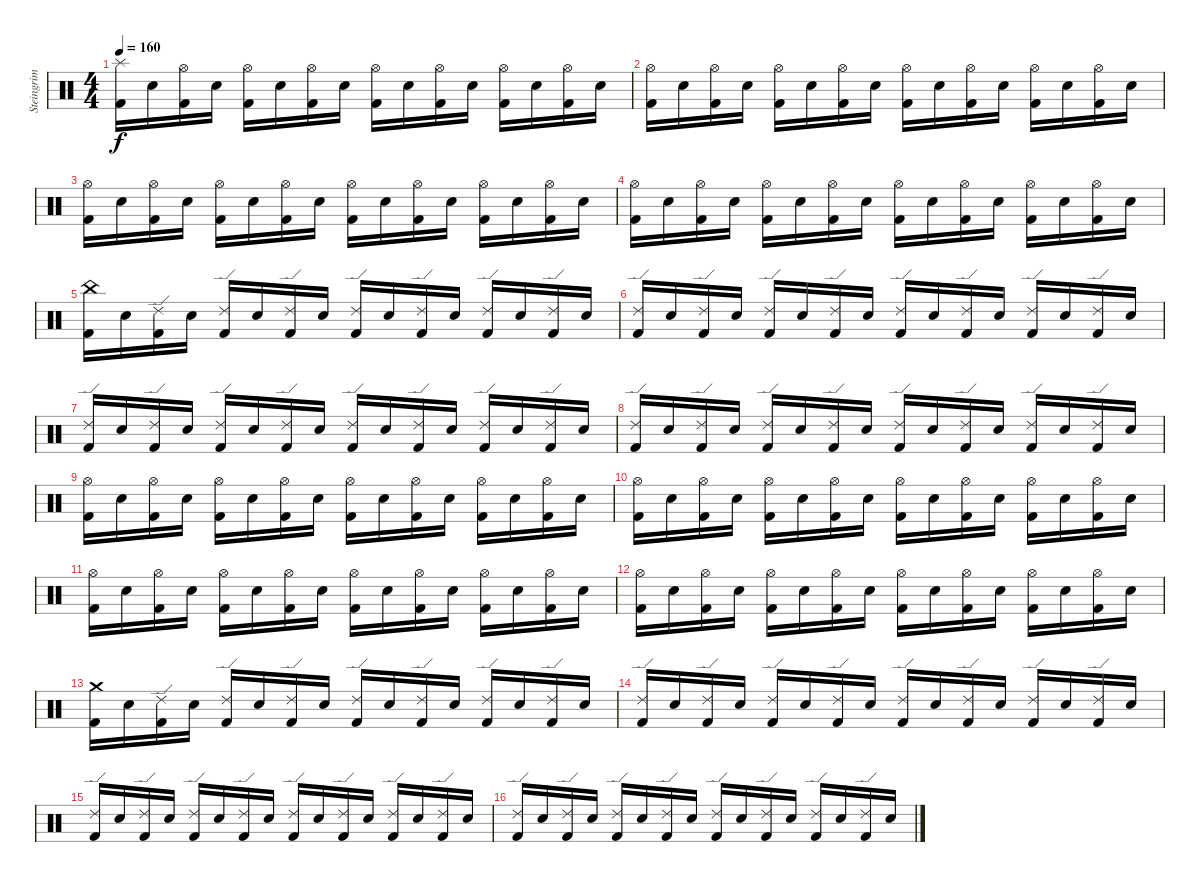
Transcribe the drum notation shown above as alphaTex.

\track ("Steingrim Trommur" "Steingrim ") {instrument percussion}
\staff {score}
\articulation defaults
\ts (4 4)
\tempo 160
\clef neutral
\ks c
("Splash (hit)" "Kick (hit) 2").16{dy f} "Electric Snare (hit)".16 ("Hi-Hat (open)" "Kick (hit) 2").16 "Electric Snare (hit)".16 ("Hi-Hat (open)" "Kick (hit) 2").16 "Electric Snare (hit)".16 ("Hi-Hat (open)" "Kick (hit) 2").16 "Electric Snare (hit)".16 ("Hi-Hat (open)" "Kick (hit) 2").16 "Electric Snare (hit)".16 ("Hi-Hat (open)" "Kick (hit) 2").16 "Electric Snare (hit)".16 ("Hi-Hat (open)" "Kick (hit) 2").16 "Electric Snare (hit)".16 ("Hi-Hat (open)" "Kick (hit) 2").16 "Electric Snare (hit)".16 |
("Hi-Hat (open)" "Kick (hit) 2").16 "Electric Snare (hit)".16 ("Hi-Hat (open)" "Kick (hit) 2").16 "Electric Snare (hit)".16 ("Hi-Hat (open)" "Kick (hit) 2").16 "Electric Snare (hit)".16 ("Hi-Hat (open)" "Kick (hit) 2").16 "Electric Snare (hit)".16 ("Hi-Hat (open)" "Kick (hit) 2").16 "Electric Snare (hit)".16 ("Hi-Hat (open)" "Kick (hit) 2").16 "Electric Snare (hit)".16 ("Hi-Hat (open)" "Kick (hit) 2").16 "Electric Snare (hit)".16 ("Hi-Hat (open)" "Kick (hit) 2").16 "Electric Snare (hit)".16 |
("Hi-Hat (open)" "Kick (hit) 2").16 "Electric Snare (hit)".16 ("Hi-Hat (open)" "Kick (hit) 2").16 "Electric Snare (hit)".16 ("Hi-Hat (open)" "Kick (hit) 2").16 "Electric Snare (hit)".16 ("Hi-Hat (open)" "Kick (hit) 2").16 "Electric Snare (hit)".16 ("Hi-Hat (open)" "Kick (hit) 2").16 "Electric Snare (hit)".16 ("Hi-Hat (open)" "Kick (hit) 2").16 "Electric Snare (hit)".16 ("Hi-Hat (open)" "Kick (hit) 2").16 "Electric Snare (hit)".16 ("Hi-Hat (open)" "Kick (hit) 2").16 "Electric Snare (hit)".16 |
("Hi-Hat (open)" "Kick (hit) 2").16 "Electric Snare (hit)".16 ("Hi-Hat (open)" "Kick (hit) 2").16 "Electric Snare (hit)".16 ("Hi-Hat (open)" "Kick (hit) 2").16 "Electric Snare (hit)".16 ("Hi-Hat (open)" "Kick (hit) 2").16 "Electric Snare (hit)".16 ("Hi-Hat (open)" "Kick (hit) 2").16 "Electric Snare (hit)".16 ("Hi-Hat (open)" "Kick (hit) 2").16 "Electric Snare (hit)".16 ("Hi-Hat (open)" "Kick (hit) 2").16 "Electric Snare (hit)".16 ("Hi-Hat (open)" "Kick (hit) 2").16 "Electric Snare (hit)".16 |
("China (hit)" "Kick (hit) 2").16 "Electric Snare (hit)".16 ("Ride (edge) 2" "Kick (hit) 2").16 "Electric Snare (hit)".16 ("Ride (edge) 2" "Kick (hit) 2").16 "Electric Snare (hit)".16 ("Ride (edge) 2" "Kick (hit) 2").16 "Electric Snare (hit)".16 ("Ride (edge) 2" "Kick (hit) 2").16 "Electric Snare (hit)".16 ("Ride (edge) 2" "Kick (hit) 2").16 "Electric Snare (hit)".16 ("Ride (edge) 2" "Kick (hit) 2").16 "Electric Snare (hit)".16 ("Ride (edge) 2" "Kick (hit) 2").16 "Electric Snare (hit)".16 |
("Ride (edge) 2" "Kick (hit) 2").16 "Electric Snare (hit)".16 ("Ride (edge) 2" "Kick (hit) 2").16 "Electric Snare (hit)".16 ("Ride (edge) 2" "Kick (hit) 2").16 "Electric Snare (hit)".16 ("Ride (edge) 2" "Kick (hit) 2").16 "Electric Snare (hit)".16 ("Ride (edge) 2" "Kick (hit) 2").16 "Electric Snare (hit)".16 ("Ride (edge) 2" "Kick (hit) 2").16 "Electric Snare (hit)".16 ("Ride (edge) 2" "Kick (hit) 2").16 "Electric Snare (hit)".16 ("Ride (edge) 2" "Kick (hit) 2").16 "Electric Snare (hit)".16 |
("Ride (edge) 2" "Kick (hit) 2").16 "Electric Snare (hit)".16 ("Ride (edge) 2" "Kick (hit) 2").16 "Electric Snare (hit)".16 ("Ride (edge) 2" "Kick (hit) 2").16 "Electric Snare (hit)".16 ("Ride (edge) 2" "Kick (hit) 2").16 "Electric Snare (hit)".16 ("Ride (edge) 2" "Kick (hit) 2").16 "Electric Snare (hit)".16 ("Ride (edge) 2" "Kick (hit) 2").16 "Electric Snare (hit)".16 ("Ride (edge) 2" "Kick (hit) 2").16 "Electric Snare (hit)".16 ("Ride (edge) 2" "Kick (hit) 2").16 "Electric Snare (hit)".16 |
("Ride (edge) 2" "Kick (hit) 2").16 "Electric Snare (hit)".16 ("Ride (edge) 2" "Kick (hit) 2").16 "Electric Snare (hit)".16 ("Ride (edge) 2" "Kick (hit) 2").16 "Electric Snare (hit)".16 ("Ride (edge) 2" "Kick (hit) 2").16 "Electric Snare (hit)".16 ("Ride (edge) 2" "Kick (hit) 2").16 "Electric Snare (hit)".16 ("Ride (edge) 2" "Kick (hit) 2").16 "Electric Snare (hit)".16 ("Ride (edge) 2" "Kick (hit) 2").16 "Electric Snare (hit)".16 ("Ride (edge) 2" "Kick (hit) 2").16 "Electric Snare (hit)".16 |
("Hi-Hat (open)" "Kick (hit) 2").16 "Electric Snare (hit)".16 ("Hi-Hat (open)" "Kick (hit) 2").16 "Electric Snare (hit)".16 ("Hi-Hat (open)" "Kick (hit) 2").16 "Electric Snare (hit)".16 ("Hi-Hat (open)" "Kick (hit) 2").16 "Electric Snare (hit)".16 ("Hi-Hat (open)" "Kick (hit) 2").16 "Electric Snare (hit)".16 ("Hi-Hat (open)" "Kick (hit) 2").16 "Electric Snare (hit)".16 ("Hi-Hat (open)" "Kick (hit) 2").16 "Electric Snare (hit)".16 ("Hi-Hat (open)" "Kick (hit) 2").16 "Electric Snare (hit)".16 |
("Hi-Hat (open)" "Kick (hit) 2").16 "Electric Snare (hit)".16 ("Hi-Hat (open)" "Kick (hit) 2").16 "Electric Snare (hit)".16 ("Hi-Hat (open)" "Kick (hit) 2").16 "Electric Snare (hit)".16 ("Hi-Hat (open)" "Kick (hit) 2").16 "Electric Snare (hit)".16 ("Hi-Hat (open)" "Kick (hit) 2").16 "Electric Snare (hit)".16 ("Hi-Hat (open)" "Kick (hit) 2").16 "Electric Snare (hit)".16 ("Hi-Hat (open)" "Kick (hit) 2").16 "Electric Snare (hit)".16 ("Hi-Hat (open)" "Kick (hit) 2").16 "Electric Snare (hit)".16 |
("Hi-Hat (open)" "Kick (hit) 2").16 "Electric Snare (hit)".16 ("Hi-Hat (open)" "Kick (hit) 2").16 "Electric Snare (hit)".16 ("Hi-Hat (open)" "Kick (hit) 2").16 "Electric Snare (hit)".16 ("Hi-Hat (open)" "Kick (hit) 2").16 "Electric Snare (hit)".16 ("Hi-Hat (open)" "Kick (hit) 2").16 "Electric Snare (hit)".16 ("Hi-Hat (open)" "Kick (hit) 2").16 "Electric Snare (hit)".16 ("Hi-Hat (open)" "Kick (hit) 2").16 "Electric Snare (hit)".16 ("Hi-Hat (open)" "Kick (hit) 2").16 "Electric Snare (hit)".16 |
("Hi-Hat (open)" "Kick (hit) 2").16 "Electric Snare (hit)".16 ("Hi-Hat (open)" "Kick (hit) 2").16 "Electric Snare (hit)".16 ("Hi-Hat (open)" "Kick (hit) 2").16 "Electric Snare (hit)".16 ("Hi-Hat (open)" "Kick (hit) 2").16 "Electric Snare (hit)".16 ("Hi-Hat (open)" "Kick (hit) 2").16 "Electric Snare (hit)".16 ("Hi-Hat (open)" "Kick (hit) 2").16 "Electric Snare (hit)".16 ("Hi-Hat (open)" "Kick (hit) 2").16 "Electric Snare (hit)".16 ("Hi-Hat (open)" "Kick (hit) 2").16 "Electric Snare (hit)".16 |
("Crash medium (hit)" "Kick (hit) 2").16 "Electric Snare (hit)".16 ("Ride (edge) 2" "Kick (hit) 2").16 "Electric Snare (hit)".16 ("Ride (edge) 2" "Kick (hit) 2").16 "Electric Snare (hit)".16 ("Ride (edge) 2" "Kick (hit) 2").16 "Electric Snare (hit)".16 ("Ride (edge) 2" "Kick (hit) 2").16 "Electric Snare (hit)".16 ("Ride (edge) 2" "Kick (hit) 2").16 "Electric Snare (hit)".16 ("Ride (edge) 2" "Kick (hit) 2").16 "Electric Snare (hit)".16 ("Ride (edge) 2" "Kick (hit) 2").16 "Electric Snare (hit)".16 |
("Ride (edge) 2" "Kick (hit) 2").16 "Electric Snare (hit)".16 ("Ride (edge) 2" "Kick (hit) 2").16 "Electric Snare (hit)".16 ("Ride (edge) 2" "Kick (hit) 2").16 "Electric Snare (hit)".16 ("Ride (edge) 2" "Kick (hit) 2").16 "Electric Snare (hit)".16 ("Ride (edge) 2" "Kick (hit) 2").16 "Electric Snare (hit)".16 ("Ride (edge) 2" "Kick (hit) 2").16 "Electric Snare (hit)".16 ("Ride (edge) 2" "Kick (hit) 2").16 "Electric Snare (hit)".16 ("Ride (edge) 2" "Kick (hit) 2").16 "Electric Snare (hit)".16 |
("Ride (edge) 2" "Kick (hit) 2").16 "Electric Snare (hit)".16 ("Ride (edge) 2" "Kick (hit) 2").16 "Electric Snare (hit)".16 ("Ride (edge) 2" "Kick (hit) 2").16 "Electric Snare (hit)".16 ("Ride (edge) 2" "Kick (hit) 2").16 "Electric Snare (hit)".16 ("Ride (edge) 2" "Kick (hit) 2").16 "Electric Snare (hit)".16 ("Ride (edge) 2" "Kick (hit) 2").16 "Electric Snare (hit)".16 ("Ride (edge) 2" "Kick (hit) 2").16 "Electric Snare (hit)".16 ("Ride (edge) 2" "Kick (hit) 2").16 "Electric Snare (hit)".16 |
("Ride (edge) 2" "Kick (hit) 2").16 "Electric Snare (hit)".16 ("Ride (edge) 2" "Kick (hit) 2").16 "Electric Snare (hit)".16 ("Ride (edge) 2" "Kick (hit) 2").16 "Electric Snare (hit)".16 ("Ride (edge) 2" "Kick (hit) 2").16 "Electric Snare (hit)".16 ("Ride (edge) 2" "Kick (hit) 2").16 "Electric Snare (hit)".16 ("Ride (edge) 2" "Kick (hit) 2").16 "Electric Snare (hit)".16 ("Ride (edge) 2" "Kick (hit) 2").16 "Electric Snare (hit)".16 ("Ride (edge) 2" "Kick (hit) 2").16 "Electric Snare (hit)".16
